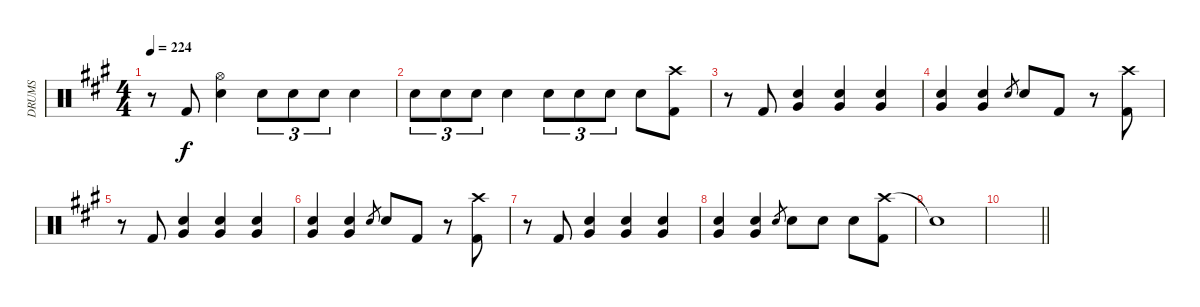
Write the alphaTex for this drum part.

\track ("DRUMS" "DRUMS") {instrument percussion}
\staff {score}
\articulation defaults
\ts (4 4)
\tempo 224
\clef neutral
\ks a
r.8{dy f} "Kick (hit) 2".8 ("Hi-Hat (open)" "Snare (hit) 2").4 "Snare (hit) 2".8{tu (3 2)} "Snare (hit) 2".8{tu (3 2)} "Snare (hit) 2".8{tu (3 2)} "Snare (hit) 2".4 |
"Snare (hit) 2".8{tu (3 2)} "Snare (hit) 2".8{tu (3 2)} "Snare (hit) 2".8{tu (3 2)} "Snare (hit) 2".4 "Snare (hit) 2".8{tu (3 2)} "Snare (hit) 2".8{tu (3 2)} "Snare (hit) 2".8{tu (3 2)} "Snare (hit) 2".8 ("Crash high (hit)" "Kick (hit) 2").8 |
r.8 "Kick (hit) 2".8 ("Snare (hit) 2" "Very Low Tom (hit)").4 ("Snare (hit) 2" "Very Low Tom (hit)").4 ("Snare (hit) 2" "Very Low Tom (hit)").4 |
("Snare (hit) 2" "Very Low Tom (hit)").4 ("Snare (hit) 2" "Very Low Tom (hit)").4 "Snare (hit) 2".8{gr} "Snare (hit) 2".8 "Kick (hit) 2".8 r.8 ("Crash high (hit)" "Kick (hit) 2").8 |
r.8 "Kick (hit) 2".8 ("Snare (hit) 2" "Very Low Tom (hit)").4 ("Snare (hit) 2" "Very Low Tom (hit)").4 ("Snare (hit) 2" "Very Low Tom (hit)").4 |
("Snare (hit) 2" "Very Low Tom (hit)").4 ("Snare (hit) 2" "Very Low Tom (hit)").4 "Snare (hit) 2".8{gr} "Snare (hit) 2".8 "Kick (hit) 2".8 r.8 ("Crash high (hit)" "Kick (hit) 2").8 |
r.8 "Kick (hit) 2".8 ("Snare (hit) 2" "Very Low Tom (hit)").4 ("Snare (hit) 2" "Very Low Tom (hit)").4 ("Snare (hit) 2" "Very Low Tom (hit)").4 |
("Snare (hit) 2" "Very Low Tom (hit)").4 ("Snare (hit) 2" "Very Low Tom (hit)").4 "Snare (hit) 2".8{gr} "Snare (hit) 2".8 "Snare (hit) 2".8 "Snare (hit) 2".8 ("Crash high (hit)" "Kick (hit) 2").8 |
"Snare (hit)"{t}.1 |
\barLineRight lightlight
